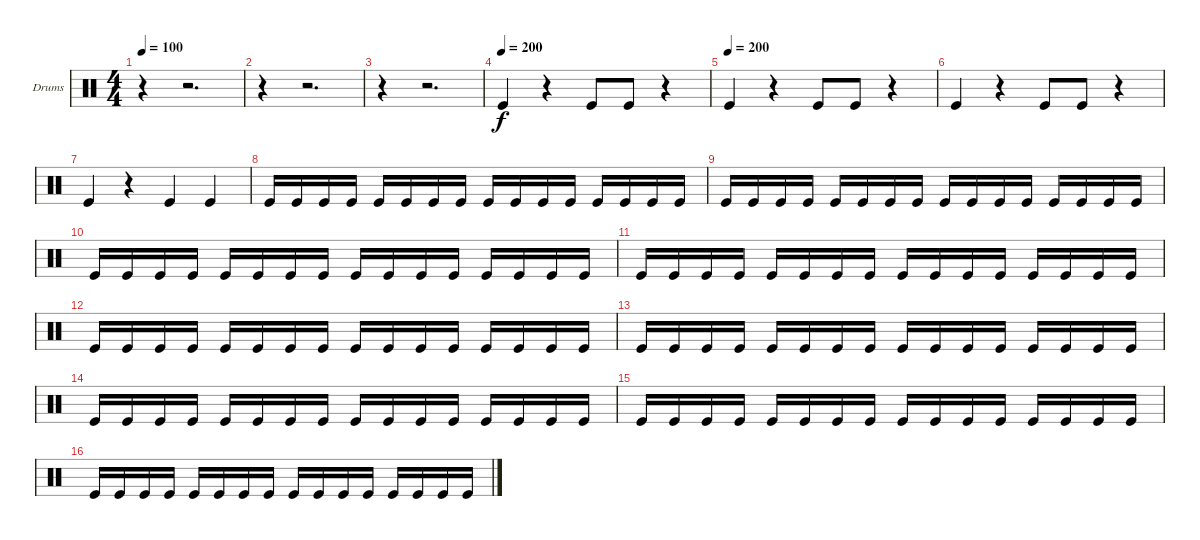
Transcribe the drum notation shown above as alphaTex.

\bracketExtendMode groupsimilarinstruments
\firstSystemTrackNameOrientation horizontal
\otherSystemsTrackNameOrientation horizontal
\track ("Drumkit" "Drums") {instrument percussion}
\staff {score}
\articulation defaults
\ts (4 4)
\tempo 100
\clef neutral
\ks c
r.4{dy ff} r.2{d} |
r.4 r.2{d} |
r.4 r.2{d} |
\tempo (200)
"Kick (hit)".4{dy f} r.4 "Kick (hit)".8 "Kick (hit)".8 r.4 |
\tempo (200)
"Kick (hit)".4 r.4 "Kick (hit)".8 "Kick (hit)".8 r.4 |
"Kick (hit)".4 r.4 "Kick (hit)".8 "Kick (hit)".8 r.4 |
"Kick (hit)".4 r.4 "Kick (hit)".4 "Kick (hit)".4 |
"Kick (hit)".16 "Kick (hit)".16 "Kick (hit)".16 "Kick (hit)".16 "Kick (hit)".16 "Kick (hit)".16 "Kick (hit)".16 "Kick (hit)".16 "Kick (hit)".16 "Kick (hit)".16 "Kick (hit)".16 "Kick (hit)".16 "Kick (hit)".16 "Kick (hit)".16 "Kick (hit)".16 "Kick (hit)".16 |
"Kick (hit)".16 "Kick (hit)".16 "Kick (hit)".16 "Kick (hit)".16 "Kick (hit)".16 "Kick (hit)".16 "Kick (hit)".16 "Kick (hit)".16 "Kick (hit)".16 "Kick (hit)".16 "Kick (hit)".16 "Kick (hit)".16 "Kick (hit)".16 "Kick (hit)".16 "Kick (hit)".16 "Kick (hit)".16 |
"Kick (hit)".16 "Kick (hit)".16 "Kick (hit)".16 "Kick (hit)".16 "Kick (hit)".16 "Kick (hit)".16 "Kick (hit)".16 "Kick (hit)".16 "Kick (hit)".16 "Kick (hit)".16 "Kick (hit)".16 "Kick (hit)".16 "Kick (hit)".16 "Kick (hit)".16 "Kick (hit)".16 "Kick (hit)".16 |
"Kick (hit)".16 "Kick (hit)".16 "Kick (hit)".16 "Kick (hit)".16 "Kick (hit)".16 "Kick (hit)".16 "Kick (hit)".16 "Kick (hit)".16 "Kick (hit)".16 "Kick (hit)".16 "Kick (hit)".16 "Kick (hit)".16 "Kick (hit)".16 "Kick (hit)".16 "Kick (hit)".16 "Kick (hit)".16 |
"Kick (hit)".16 "Kick (hit)".16 "Kick (hit)".16 "Kick (hit)".16 "Kick (hit)".16 "Kick (hit)".16 "Kick (hit)".16 "Kick (hit)".16 "Kick (hit)".16 "Kick (hit)".16 "Kick (hit)".16 "Kick (hit)".16 "Kick (hit)".16 "Kick (hit)".16 "Kick (hit)".16 "Kick (hit)".16 |
"Kick (hit)".16 "Kick (hit)".16 "Kick (hit)".16 "Kick (hit)".16 "Kick (hit)".16 "Kick (hit)".16 "Kick (hit)".16 "Kick (hit)".16 "Kick (hit)".16 "Kick (hit)".16 "Kick (hit)".16 "Kick (hit)".16 "Kick (hit)".16 "Kick (hit)".16 "Kick (hit)".16 "Kick (hit)".16 |
"Kick (hit)".16 "Kick (hit)".16 "Kick (hit)".16 "Kick (hit)".16 "Kick (hit)".16 "Kick (hit)".16 "Kick (hit)".16 "Kick (hit)".16 "Kick (hit)".16 "Kick (hit)".16 "Kick (hit)".16 "Kick (hit)".16 "Kick (hit)".16 "Kick (hit)".16 "Kick (hit)".16 "Kick (hit)".16 |
"Kick (hit)".16 "Kick (hit)".16 "Kick (hit)".16 "Kick (hit)".16 "Kick (hit)".16 "Kick (hit)".16 "Kick (hit)".16 "Kick (hit)".16 "Kick (hit)".16 "Kick (hit)".16 "Kick (hit)".16 "Kick (hit)".16 "Kick (hit)".16 "Kick (hit)".16 "Kick (hit)".16 "Kick (hit)".16 |
"Kick (hit)".16 "Kick (hit)".16 "Kick (hit)".16 "Kick (hit)".16 "Kick (hit)".16 "Kick (hit)".16 "Kick (hit)".16 "Kick (hit)".16 "Kick (hit)".16 "Kick (hit)".16 "Kick (hit)".16 "Kick (hit)".16 "Kick (hit)".16 "Kick (hit)".16 "Kick (hit)".16 "Kick (hit)".16
